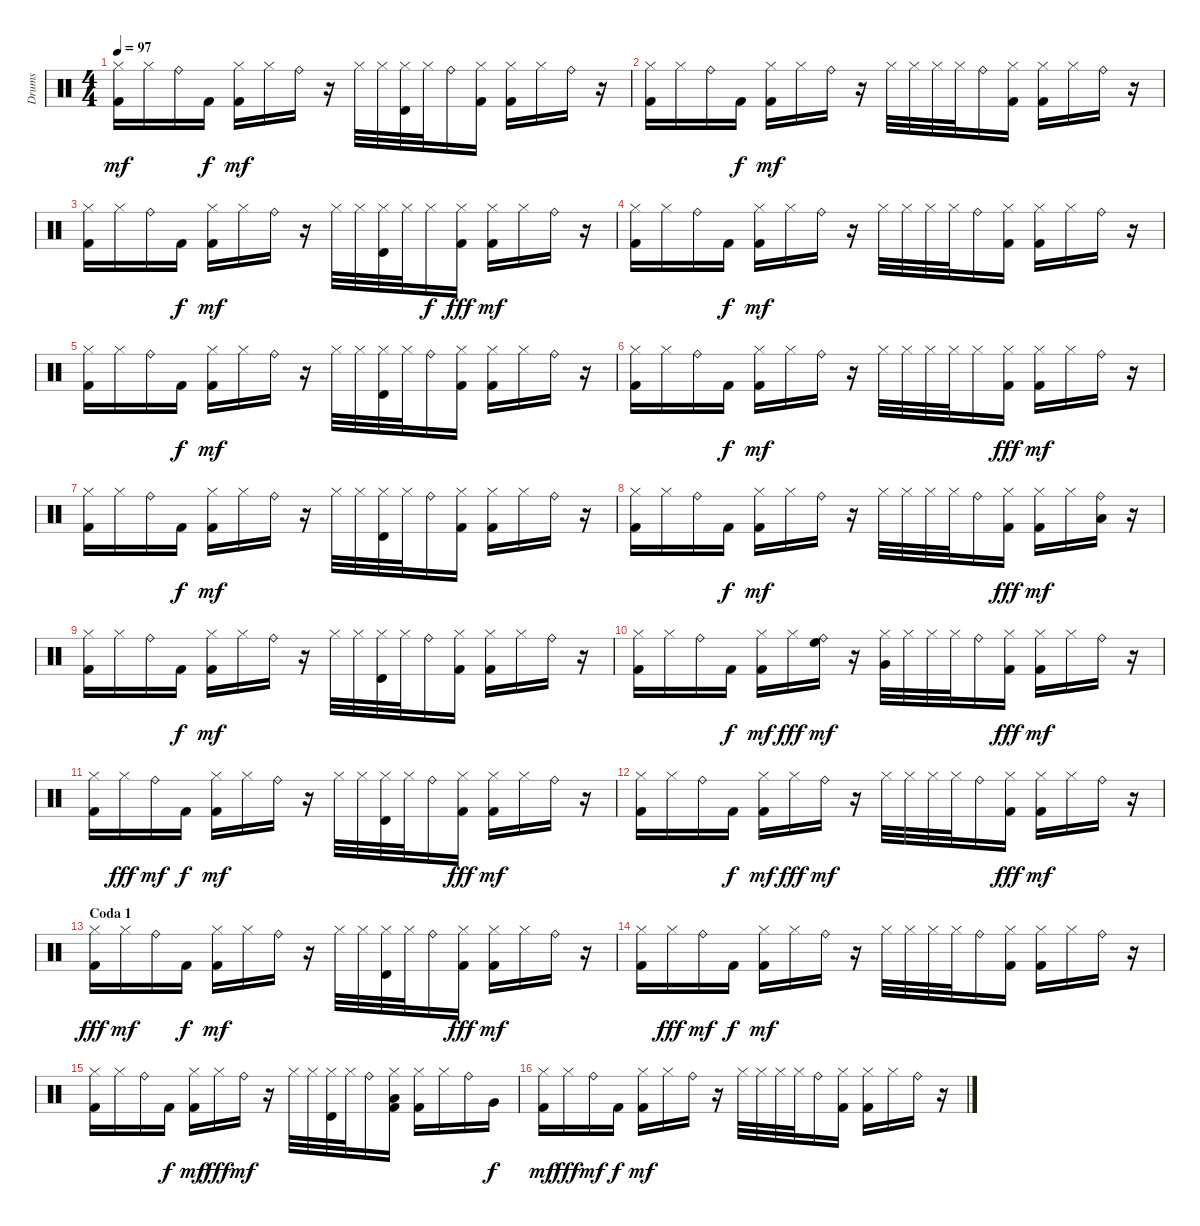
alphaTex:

\track ("Drums" "Drums") {instrument percussion}
\staff {score}
\articulation defaults
\ts (4 4)
\tempo 97
\clef neutral
\ks c
("Hi-Hat (closed)" "Kick (hit) 2").16{dy mf} "Hi-Hat (closed)".16 "Ride (bell)".16 "Kick (hit) 2".16{dy f} ("Hi-Hat (closed)" "Kick (hit) 2").16{dy mf} "Hi-Hat (closed)".16 "Ride (bell)".16 r.16 "Hi-Hat (closed)".32 "Hi-Hat (closed)".32 ("Hi-Hat (closed)" "Timbale high (hit)").32 "Hi-Hat (closed)".32 "Ride (bell)".16 ("Hi-Hat (closed)" "Kick (hit) 2").16 ("Hi-Hat (closed)" "Kick (hit) 2").16 "Hi-Hat (closed)".16 "Ride (bell)".16 r.16 |
("Hi-Hat (closed)" "Kick (hit) 2").16 "Hi-Hat (closed)".16 "Ride (bell)".16 "Kick (hit) 2".16{dy f} ("Hi-Hat (closed)" "Kick (hit) 2").16{dy mf} "Hi-Hat (closed)".16 "Ride (bell)".16 r.16 "Hi-Hat (closed)".32 "Hi-Hat (closed)".32 "Hi-Hat (closed)".32 "Hi-Hat (closed)".32 "Ride (bell)".16 ("Hi-Hat (closed)" "Kick (hit) 2").16 ("Hi-Hat (closed)" "Kick (hit) 2").16 "Hi-Hat (closed)".16 "Ride (bell)".16 r.16 |
("Hi-Hat (closed)" "Kick (hit) 2").16 "Hi-Hat (closed)".16 "Ride (bell)".16 "Kick (hit) 2".16{dy f} ("Hi-Hat (closed)" "Kick (hit) 2").16{dy mf} "Hi-Hat (closed)".16 "Ride (bell)".16 r.16 "Hi-Hat (closed)".32 "Hi-Hat (closed)".32 ("Hi-Hat (closed)" "Timbale high (hit)").32 "Hi-Hat (closed)".32 "Hi-Hat (closed)".16{dy f} ("Hi-Hat (closed)" "Kick (hit) 2").16{dy fff} ("Hi-Hat (closed)" "Kick (hit) 2").16{dy mf} "Hi-Hat (closed)".16 "Ride (bell)".16 r.16 |
("Hi-Hat (closed)" "Kick (hit) 2").16 "Hi-Hat (closed)".16 "Ride (bell)".16 "Kick (hit) 2".16{dy f} ("Hi-Hat (closed)" "Kick (hit) 2").16{dy mf} "Hi-Hat (closed)".16 "Ride (bell)".16 r.16 "Hi-Hat (closed)".32 "Hi-Hat (closed)".32 "Hi-Hat (closed)".32 "Hi-Hat (closed)".32 "Ride (bell)".16 ("Hi-Hat (closed)" "Kick (hit) 2").16 ("Hi-Hat (closed)" "Kick (hit) 2").16 "Hi-Hat (closed)".16 "Ride (bell)".16 r.16 |
("Hi-Hat (closed)" "Kick (hit) 2").16 "Hi-Hat (closed)".16 "Ride (bell)".16 "Kick (hit) 2".16{dy f} ("Hi-Hat (closed)" "Kick (hit) 2").16{dy mf} "Hi-Hat (closed)".16 "Ride (bell)".16 r.16 "Hi-Hat (closed)".32 "Hi-Hat (closed)".32 ("Hi-Hat (closed)" "Timbale high (hit)").32 "Hi-Hat (closed)".32 "Ride (bell)".16 ("Hi-Hat (closed)" "Kick (hit) 2").16 ("Hi-Hat (closed)" "Kick (hit) 2").16 "Hi-Hat (closed)".16 "Ride (bell)".16 r.16 |
("Hi-Hat (closed)" "Kick (hit) 2").16 "Hi-Hat (closed)".16 "Ride (bell)".16 "Kick (hit) 2".16{dy f} ("Hi-Hat (closed)" "Kick (hit) 2").16{dy mf} "Hi-Hat (closed)".16 "Ride (bell)".16 r.16 "Hi-Hat (closed)".32 "Hi-Hat (closed)".32 "Hi-Hat (closed)".32 "Hi-Hat (closed)".32 "Hi-Hat (closed)".16 ("Hi-Hat (closed)" "Kick (hit) 2").16{dy fff} ("Hi-Hat (closed)" "Kick (hit) 2").16{dy mf} "Hi-Hat (closed)".16 "Ride (bell)".16 r.16 |
("Hi-Hat (closed)" "Kick (hit) 2").16 "Hi-Hat (closed)".16 "Ride (bell)".16 "Kick (hit) 2".16{dy f} ("Hi-Hat (closed)" "Kick (hit) 2").16{dy mf} "Hi-Hat (closed)".16 "Ride (bell)".16 r.16 "Hi-Hat (closed)".32 "Hi-Hat (closed)".32 ("Hi-Hat (closed)" "Timbale high (hit)").32 "Hi-Hat (closed)".32 "Ride (bell)".16 ("Hi-Hat (closed)" "Kick (hit) 2").16 ("Hi-Hat (closed)" "Kick (hit) 2").16 "Hi-Hat (closed)".16 "Ride (bell)".16 r.16 |
("Hi-Hat (closed)" "Kick (hit) 2").16 "Hi-Hat (closed)".16 "Ride (bell)".16 "Kick (hit) 2".16{dy f} ("Hi-Hat (closed)" "Kick (hit) 2").16{dy mf} "Hi-Hat (closed)".16 "Ride (bell)".16 r.16 "Hi-Hat (closed)".32 "Hi-Hat (closed)".32 "Hi-Hat (closed)".32 "Hi-Hat (closed)".32 "Ride (bell)".16 ("Hi-Hat (closed)" "Kick (hit) 2").16{dy fff} ("Hi-Hat (closed)" "Kick (hit) 2").16{dy mf} "Hi-Hat (closed)".16 ("Ride (bell)" "Low Tom (hit)").16 r.16 |
("Hi-Hat (closed)" "Kick (hit) 2").16 "Hi-Hat (closed)".16 "Ride (bell)".16 "Kick (hit) 2".16{dy f} ("Hi-Hat (closed)" "Kick (hit) 2").16{dy mf} "Hi-Hat (closed)".16 "Ride (bell)".16 r.16 "Hi-Hat (closed)".32 "Hi-Hat (closed)".32 ("Hi-Hat (closed)" "Timbale high (hit)").32 "Hi-Hat (closed)".32 "Ride (bell)".16 ("Hi-Hat (closed)" "Kick (hit) 2").16 ("Hi-Hat (closed)" "Kick (hit) 2").16 "Hi-Hat (closed)".16 "Ride (bell)".16 r.16 |
("Hi-Hat (closed)" "Kick (hit) 2").16 "Hi-Hat (closed)".16 "Ride (bell)".16 "Kick (hit) 2".16{dy f} ("Hi-Hat (closed)" "Kick (hit) 2").16{dy mf} "Hi-Hat (closed)".16{dy fff} ("Ride (bell)" "High Floor Tom (hit)").16{dy mf} r.16 ("Hi-Hat (closed)" "Very Low Tom (hit)").32 "Hi-Hat (closed)".32 "Hi-Hat (closed)".32 "Hi-Hat (closed)".32 "Ride (bell)".16 ("Hi-Hat (closed)" "Kick (hit) 2").16{dy fff} ("Hi-Hat (closed)" "Kick (hit) 2").16{dy mf} "Hi-Hat (closed)".16 "Ride (bell)".16 r.16 |
("Hi-Hat (closed)" "Kick (hit) 2").16 "Hi-Hat (closed)".16{dy fff} "Ride (bell)".16{dy mf} "Kick (hit) 2".16{dy f} ("Hi-Hat (closed)" "Kick (hit) 2").16{dy mf} "Hi-Hat (closed)".16 "Ride (bell)".16 r.16 "Hi-Hat (closed)".32 "Hi-Hat (closed)".32 ("Hi-Hat (closed)" "Timbale high (hit)").32 "Hi-Hat (closed)".32 "Ride (bell)".16 ("Hi-Hat (closed)" "Kick (hit) 2").16{dy fff} ("Hi-Hat (closed)" "Kick (hit) 2").16{dy mf} "Hi-Hat (closed)".16 "Ride (bell)".16 r.16 |
("Hi-Hat (closed)" "Kick (hit) 2").16 "Hi-Hat (closed)".16 "Ride (bell)".16 "Kick (hit) 2".16{dy f} ("Hi-Hat (closed)" "Kick (hit) 2").16{dy mf} "Hi-Hat (closed)".16{dy fff} "Ride (bell)".16{dy mf} r.16 "Hi-Hat (closed)".32 "Hi-Hat (closed)".32 "Hi-Hat (closed)".32 "Hi-Hat (closed)".32 "Ride (bell)".16 ("Hi-Hat (closed)" "Kick (hit) 2").16{dy fff} ("Hi-Hat (closed)" "Kick (hit) 2").16{dy mf} "Hi-Hat (closed)".16 "Ride (bell)".16 r.16 |
\section ("" "Coda 1")
("Hi-Hat (closed)" "Kick (hit) 2").16{dy fff} "Hi-Hat (closed)".16{dy mf} "Ride (bell)".16 "Kick (hit) 2".16{dy f} ("Hi-Hat (closed)" "Kick (hit) 2").16{dy mf} "Hi-Hat (closed)".16 "Ride (bell)".16 r.16 "Hi-Hat (closed)".32 "Hi-Hat (closed)".32 ("Hi-Hat (closed)" "Timbale high (hit)").32 "Hi-Hat (closed)".32 "Ride (bell)".16 ("Hi-Hat (closed)" "Kick (hit) 2").16{dy fff} ("Hi-Hat (closed)" "Kick (hit) 2").16{dy mf} "Hi-Hat (closed)".16 "Ride (bell)".16 r.16 |
("Hi-Hat (closed)" "Kick (hit) 2").16 "Hi-Hat (closed)".16{dy fff} "Ride (bell)".16{dy mf} "Kick (hit) 2".16{dy f} ("Hi-Hat (closed)" "Kick (hit) 2").16{dy mf} "Hi-Hat (closed)".16 "Ride (bell)".16 r.16 "Hi-Hat (closed)".32 "Hi-Hat (closed)".32 "Hi-Hat (closed)".32 "Hi-Hat (closed)".32 "Ride (bell)".16 ("Hi-Hat (closed)" "Kick (hit) 2").16 ("Hi-Hat (closed)" "Kick (hit) 2").16 "Hi-Hat (closed)".16 "Ride (bell)".16 r.16 |
("Hi-Hat (closed)" "Kick (hit) 2").16 "Hi-Hat (closed)".16 "Ride (bell)".16 "Kick (hit) 2".16{dy f} ("Hi-Hat (closed)" "Kick (hit) 2").16{dy mf} "Hi-Hat (closed)".16{dy fff} "Ride (bell)".16{dy mf} r.16 "Hi-Hat (closed)".32 "Hi-Hat (closed)".32 ("Hi-Hat (closed)" "Timbale high (hit)").32 "Hi-Hat (closed)".32 "Ride (bell)".16 ("Hi-Hat (closed)" "Low Tom (hit)" "Kick (hit) 2").16 ("Hi-Hat (closed)" "Kick (hit) 2").16 "Hi-Hat (closed)".16 "Ride (bell)".16 "Very Low Tom (hit)".16{dy f} |
("Hi-Hat (closed)" "Kick (hit) 2").16{dy mf} "Hi-Hat (closed)".16{dy fff} "Ride (bell)".16{dy mf} "Kick (hit) 2".16{dy f} ("Hi-Hat (closed)" "Kick (hit) 2").16{dy mf} "Hi-Hat (closed)".16 "Ride (bell)".16 r.16 "Hi-Hat (closed)".32 "Hi-Hat (closed)".32 "Hi-Hat (closed)".32 "Hi-Hat (closed)".32 "Ride (bell)".16 ("Hi-Hat (closed)" "Kick (hit) 2").16 ("Hi-Hat (closed)" "Kick (hit) 2").16 "Hi-Hat (closed)".16 "Ride (bell)".16 r.16
